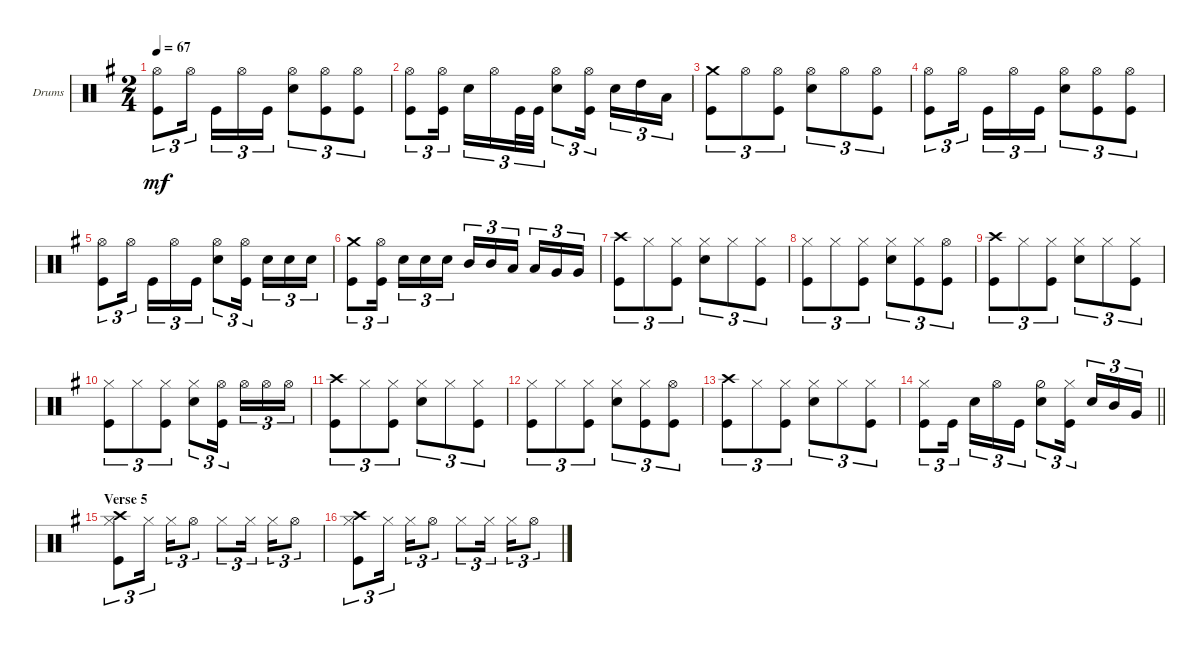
\bracketExtendMode groupsimilarinstruments
\firstSystemTrackNameOrientation horizontal
\otherSystemsTrackNameOrientation horizontal
\track ("drums (Anton Zulganov)" "Drums") {instrument percussion}
\staff {score}
\articulation defaults
\ts (2 4)
\tempo 67
\clef neutral
\ks eminor
("Hi-Hat (open)" "Kick (hit)").8{tu (3 2) dy mf} "Hi-Hat (open)".16{tu (3 2)} "Kick (hit)".16{tu (3 2)} "Hi-Hat (open)".16{tu (3 2)} "Kick (hit)".16{tu (3 2)} ("Hi-Hat (open)" "Snare (hit) 2").8{tu (3 2)} ("Hi-Hat (open)" "Kick (hit)").8{tu (3 2)} ("Hi-Hat (open)" "Kick (hit)").8{tu (3 2)} |
("Hi-Hat (open)" "Kick (hit)").8{tu (3 2)} ("Hi-Hat (open)" "Kick (hit)").16{tu (3 2)} "Snare (hit) 2".16{tu (3 2)} "Hi-Hat (open)".16{tu (3 2)} "Kick (hit)".32{tu (3 2)} "Kick (hit)".32{tu (3 2)} ("Hi-Hat (open)" "Snare (hit) 2").8{tu (3 2)} ("Hi-Hat (open)" "Kick (hit)").16{tu (3 2)} "Snare (hit) 2".16{tu (3 2)} "High Tom (hit)".16{tu (3 2)} "Low Tom (hit)".16{tu (3 2)} |
("Crash medium (hit)" "Kick (hit)").8{tu (3 2)} "Hi-Hat (open)".8{tu (3 2)} ("Hi-Hat (open)" "Kick (hit)").8{tu (3 2)} ("Hi-Hat (open)" "Snare (hit) 2").8{tu (3 2)} "Hi-Hat (open)".8{tu (3 2)} ("Hi-Hat (open)" "Kick (hit)").8{tu (3 2)} |
("Hi-Hat (open)" "Kick (hit)").8{tu (3 2)} "Hi-Hat (open)".16{tu (3 2)} "Kick (hit)".16{tu (3 2)} "Hi-Hat (open)".16{tu (3 2)} "Kick (hit)".16{tu (3 2)} ("Hi-Hat (open)" "Snare (hit) 2").8{tu (3 2)} ("Hi-Hat (open)" "Kick (hit)").8{tu (3 2)} ("Hi-Hat (open)" "Kick (hit)").8{tu (3 2)} |
("Hi-Hat (open)" "Kick (hit)").8{tu (3 2)} "Hi-Hat (open)".16{tu (3 2)} "Kick (hit)".16{tu (3 2)} "Hi-Hat (open)".16{tu (3 2)} "Kick (hit)".16{tu (3 2)} ("Hi-Hat (open)" "Snare (hit) 2").8{tu (3 2)} ("Hi-Hat (open)" "Kick (hit)").16{tu (3 2)} "Snare (hit) 2".16{tu (3 2)} "Snare (hit) 2".16{tu (3 2)} "Snare (hit) 2".16{tu (3 2)} |
("Crash medium (hit)" "Kick (hit)").8{tu (3 2)} ("Kick (hit)" "Hi-Hat (open)").16{tu (3 2)} "Snare (hit) 2".16{tu (3 2)} "Snare (hit) 2".16{tu (3 2)} "Snare (hit) 2".16{tu (3 2)} "Mid Tom (hit)".16{tu (3 2)} "Mid Tom (hit)".16{tu (3 2)} "Low Tom (hit)".16{tu (3 2)} "Low Tom (hit)".16{tu (3 2)} "Very Low Tom (hit)".16{tu (3 2)} "Very Low Tom (hit)".16{tu (3 2)} |
("Kick (hit)" "Crash high (hit)").8{tu (3 2)} "Hi-Hat (closed)".8{tu (3 2)} ("Hi-Hat (closed)" "Kick (hit)").8{tu (3 2)} ("Hi-Hat (closed)" "Snare (hit) 2").8{tu (3 2)} "Hi-Hat (closed)".8{tu (3 2)} ("Hi-Hat (closed)" "Kick (hit)").8{tu (3 2)} |
("Hi-Hat (closed)" "Kick (hit)").8{tu (3 2)} "Hi-Hat (closed)".8{tu (3 2)} ("Hi-Hat (closed)" "Kick (hit)").8{tu (3 2)} ("Hi-Hat (closed)" "Snare (hit) 2").8{tu (3 2)} ("Hi-Hat (closed)" "Kick (hit)").8{tu (3 2)} ("Hi-Hat (open)" "Kick (hit)").8{tu (3 2)} |
("Kick (hit)" "Crash high (hit)").8{tu (3 2)} "Hi-Hat (closed)".8{tu (3 2)} ("Hi-Hat (closed)" "Kick (hit)").8{tu (3 2)} ("Hi-Hat (closed)" "Snare (hit) 2").8{tu (3 2)} "Hi-Hat (closed)".8{tu (3 2)} ("Hi-Hat (closed)" "Kick (hit)").8{tu (3 2)} |
("Hi-Hat (closed)" "Kick (hit)").8{tu (3 2)} "Hi-Hat (closed)".8{tu (3 2)} ("Hi-Hat (closed)" "Kick (hit)").8{tu (3 2)} ("Hi-Hat (closed)" "Snare (hit) 2").8{tu (3 2)} ("Hi-Hat (open)" "Kick (hit)").16{tu (3 2)} "Hi-Hat (open)".16{tu (3 2)} "Hi-Hat (open)".16{tu (3 2)} "Hi-Hat (open)".16{tu (3 2)} |
("Kick (hit)" "Crash high (hit)").8{tu (3 2)} "Hi-Hat (closed)".8{tu (3 2)} ("Hi-Hat (closed)" "Kick (hit)").8{tu (3 2)} ("Hi-Hat (closed)" "Snare (hit) 2").8{tu (3 2)} "Hi-Hat (closed)".8{tu (3 2)} ("Hi-Hat (closed)" "Kick (hit)").8{tu (3 2)} |
("Hi-Hat (closed)" "Kick (hit)").8{tu (3 2)} "Hi-Hat (closed)".8{tu (3 2)} ("Hi-Hat (closed)" "Kick (hit)").8{tu (3 2)} ("Hi-Hat (closed)" "Snare (hit) 2").8{tu (3 2)} ("Hi-Hat (closed)" "Kick (hit)").8{tu (3 2)} ("Hi-Hat (open)" "Kick (hit)").8{tu (3 2)} |
("Kick (hit)" "Crash high (hit)").8{tu (3 2)} "Hi-Hat (closed)".8{tu (3 2)} ("Hi-Hat (closed)" "Kick (hit)").8{tu (3 2)} ("Hi-Hat (closed)" "Snare (hit) 2").8{tu (3 2)} "Hi-Hat (closed)".8{tu (3 2)} ("Hi-Hat (closed)" "Kick (hit)").8{tu (3 2)} |
\barLineRight lightlight
("Hi-Hat (closed)" "Kick (hit)").8{tu (3 2)} "Kick (hit)".16{tu (3 2)} "Snare (hit) 2".16{tu (3 2)} "Hi-Hat (open)".16{tu (3 2)} "Kick (hit)".16{tu (3 2)} ("Hi-Hat (half)" "Snare (hit) 2").8{tu (3 2)} ("Hi-Hat (closed)" "Kick (hit)").16{tu (3 2)} "Snare (hit) 2".16{tu (3 2)} "Mid Tom (hit)".16{tu (3 2)} "Very Low Tom (hit)".16{tu (3 2)} |
\section ("" "Verse 5")
("Hi-Hat (closed)" "Crash high (hit)" "Kick (hit)").8{tu (3 2)} "Hi-Hat (closed)".16{tu (3 2)} "Hi-Hat (closed)".16{tu (3 2)} "Hi-Hat (open)".8{tu (3 2)} "Hi-Hat (closed)".8{tu (3 2)} "Hi-Hat (closed)".16{tu (3 2)} "Hi-Hat (closed)".16{tu (3 2)} "Hi-Hat (open)".8{tu (3 2)} |
("Hi-Hat (closed)" "Kick (hit)" "Crash high (hit)").8{tu (3 2)} "Hi-Hat (closed)".16{tu (3 2)} "Hi-Hat (closed)".16{tu (3 2)} "Hi-Hat (open)".8{tu (3 2)} "Hi-Hat (closed)".8{tu (3 2)} "Hi-Hat (closed)".16{tu (3 2)} "Hi-Hat (closed)".16{tu (3 2)} "Hi-Hat (open)".8{tu (3 2)}
